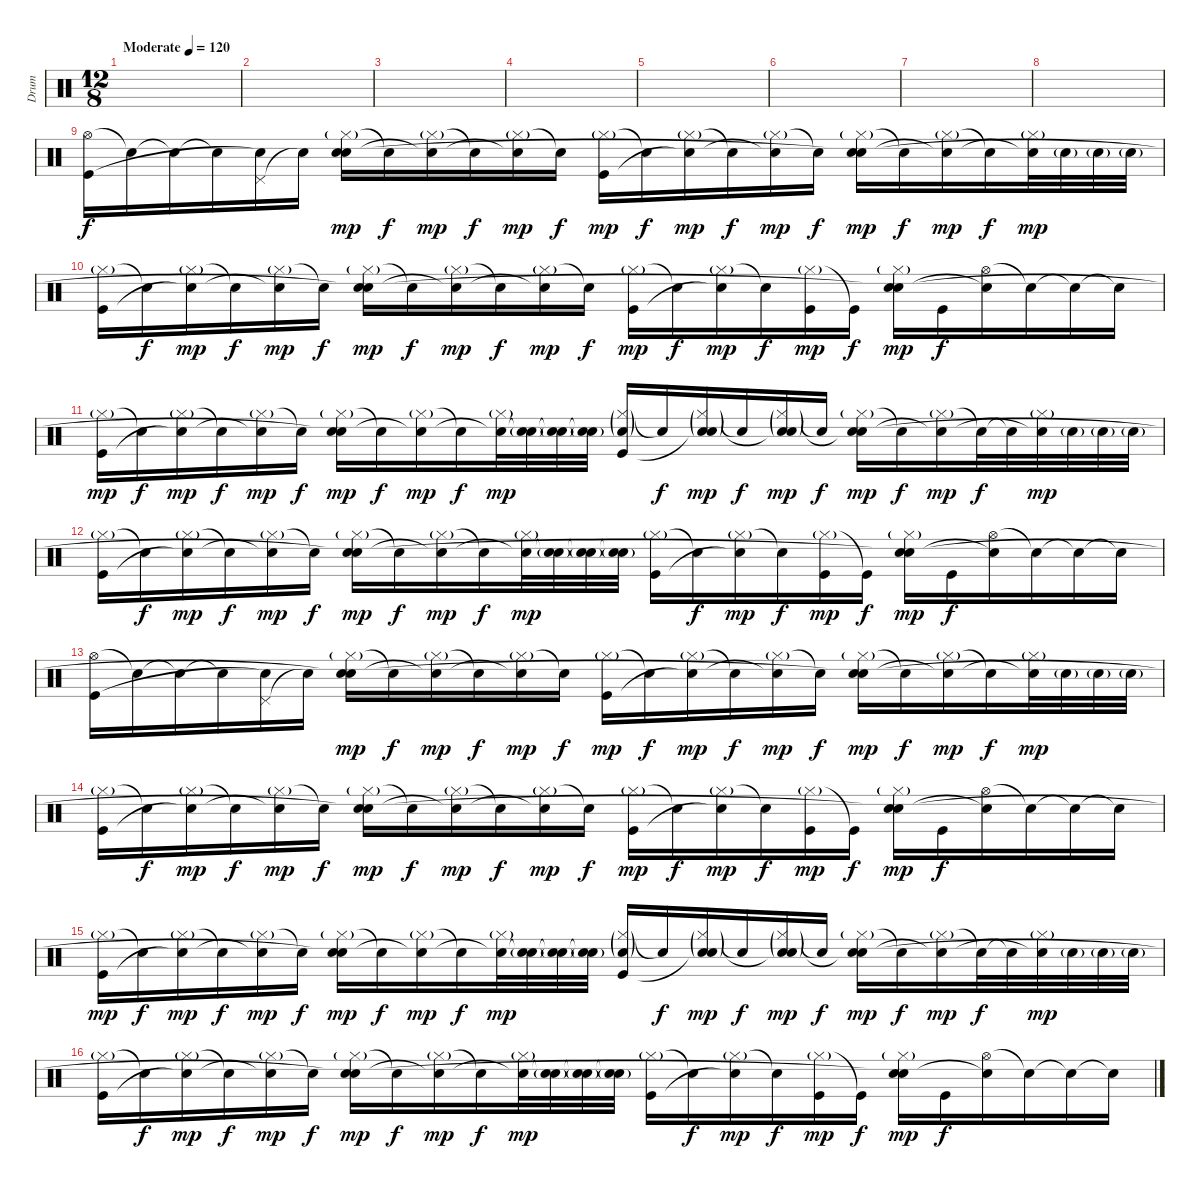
\track ("Drum" "Drum") {instrument percussion}
\staff {score}
\articulation defaults
\ts (12 8)
\tempo (120 "Moderate")
\clef neutral
\ks c
|
|
|
|
|
|
|
|
("Hi-Hat (open)" "Kick (hit)").16 "Snare (hit)"{t}.16 "Snare (hit)"{t}.16 "Snare (hit)"{t}.16 ("Pedal Hi-Hat (hit)" "Snare (hit)"{t}).16 "Snare (hit)"{t}.16 ("Hi-Hat (closed)"{g} "Electric Snare (hit)" "Snare (hit)").16{dy mp} "Snare (hit)"{t}.16{dy f} ("Hi-Hat (closed)"{g} "Snare (hit)"{t}).16{dy mp} "Snare (hit)"{t}.16{dy f} ("Hi-Hat (closed)"{g} "Snare (hit)"{t}).16{dy mp} "Snare (hit)"{t}.16{dy f} ("Hi-Hat (closed)"{g} "Kick (hit)").16{dy mp} "Snare (hit)"{t}.16{dy f} ("Hi-Hat (closed)"{g} "Snare (hit)"{t}).16{dy mp} "Snare (hit)"{t}.16{dy f} ("Hi-Hat (closed)"{g} "Snare (hit)"{t}).16{dy mp} "Snare (hit)"{t}.16{dy f} ("Hi-Hat (closed)"{g} "Electric Snare (hit)" "Snare (hit)"{t}).16{dy mp} "Snare (hit)"{t}.16{dy f} ("Hi-Hat (closed)"{g} "Snare (hit)"{t}).16{dy mp} "Snare (hit)"{t}.16{dy f} ("Hi-Hat (closed)"{g} "Snare (hit)"{t}).32{dy mp} "Electric Snare (hit)"{g}.32 "Electric Snare (hit)"{g}.32 "Electric Snare (hit)"{g}.32 |
("Hi-Hat (closed)"{g} "Kick (hit)").16 "Snare (hit)"{t}.16{dy f} ("Hi-Hat (closed)"{g} "Snare (hit)"{t}).16{dy mp} "Snare (hit)"{t}.16{dy f} ("Hi-Hat (closed)"{g} "Snare (hit)"{t}).16{dy mp} "Snare (hit)"{t}.16{dy f} ("Hi-Hat (closed)"{g} "Electric Snare (hit)" "Snare (hit)"{t}).16{dy mp} "Snare (hit)"{t}.16{dy f} ("Hi-Hat (closed)"{g} "Snare (hit)"{t}).16{dy mp} "Snare (hit)"{t}.16{dy f} ("Hi-Hat (closed)"{g} "Snare (hit)"{t}).16{dy mp} "Snare (hit)"{t}.16{dy f} ("Hi-Hat (closed)"{g} "Kick (hit)").16{dy mp} "Snare (hit)"{t}.16{dy f} ("Hi-Hat (closed)"{g} "Snare (hit)"{t}).16{dy mp} "Snare (hit)"{t}.16{dy f} ("Hi-Hat (closed)"{g} "Kick (hit)").16{dy mp} "Kick (hit)"{t}.16{dy f} ("Hi-Hat (closed)"{g} "Electric Snare (hit)" "Snare (hit)"{t}).16{dy mp} "Kick (hit)".16{dy f} ("Hi-Hat (open)" "Snare (hit)"{t}).16 "Snare (hit)"{t}.16 "Snare (hit)"{t}.16 "Snare (hit)"{t}.16 |
("Hi-Hat (closed)"{g} "Kick (hit)").16{dy mp} "Snare (hit)"{t}.16{dy f} ("Hi-Hat (closed)"{g} "Snare (hit)"{t}).16{dy mp} "Snare (hit)"{t}.16{dy f} ("Hi-Hat (closed)"{g} "Snare (hit)"{t}).16{dy mp} "Snare (hit)"{t}.16{dy f} ("Hi-Hat (closed)"{g} "Electric Snare (hit)" "Snare (hit)"{t}).16{dy mp} "Snare (hit)"{t}.16{dy f} ("Hi-Hat (closed)"{g} "Snare (hit)"{t}).16{dy mp} "Snare (hit)"{t}.16{dy f} ("Hi-Hat (closed)"{g} "Snare (hit)"{t}).32{dy mp} ("Electric Snare (hit)"{g} "Snare (hit)"{t}).32 ("Electric Snare (hit)"{g} "Snare (hit)"{t}).32 ("Electric Snare (hit)"{g} "Snare (hit)"{t}).32 ("Hi-Hat (closed)"{g} "Electric Snare (hit)"{g} "Kick (hit)").16 "Snare (hit)"{t}.16{dy f} ("Hi-Hat (closed)"{g} "Electric Snare (hit)"{g} "Snare (hit)"{t}).16{dy mp} "Snare (hit)"{t}.16{dy f} ("Hi-Hat (closed)"{g} "Electric Snare (hit)"{g} "Snare (hit)"{t}).16{dy mp} "Snare (hit)"{t}.16{dy f} ("Hi-Hat (closed)"{g} "Electric Snare (hit)" "Snare (hit)"{t}).16{dy mp} "Snare (hit)"{t}.16{dy f} ("Hi-Hat (closed)"{g} "Snare (hit)"{t}).16{dy mp} "Snare (hit)"{t}.32{dy f} "Snare (hit)"{t}.32 ("Hi-Hat (closed)"{g} "Snare (hit)"{t}).32{dy mp} "Electric Snare (hit)"{g}.32 "Electric Snare (hit)"{g}.32 "Electric Snare (hit)"{g}.32 |
("Hi-Hat (closed)"{g} "Kick (hit)").16 "Snare (hit)"{t}.16{dy f} ("Hi-Hat (closed)"{g} "Snare (hit)"{t}).16{dy mp} "Snare (hit)"{t}.16{dy f} ("Hi-Hat (closed)"{g} "Snare (hit)"{t}).16{dy mp} "Snare (hit)"{t}.16{dy f} ("Hi-Hat (closed)"{g} "Electric Snare (hit)" "Snare (hit)"{t}).16{dy mp} "Snare (hit)"{t}.16{dy f} ("Hi-Hat (closed)"{g} "Snare (hit)"{t}).16{dy mp} "Snare (hit)"{t}.16{dy f} ("Hi-Hat (closed)"{g} "Snare (hit)"{t}).32{dy mp} ("Electric Snare (hit)"{g} "Snare (hit)"{t}).32 ("Electric Snare (hit)"{g} "Snare (hit)"{t}).32 ("Electric Snare (hit)"{g} "Snare (hit)"{t}).32 ("Hi-Hat (closed)"{g} "Kick (hit)").16 "Snare (hit)"{t}.16{dy f} ("Hi-Hat (closed)"{g} "Snare (hit)"{t}).16{dy mp} "Snare (hit)"{t}.16{dy f} ("Hi-Hat (closed)"{g} "Kick (hit)").16{dy mp} "Kick (hit)"{t}.16{dy f} ("Hi-Hat (closed)"{g} "Electric Snare (hit)" "Snare (hit)"{t}).16{dy mp} "Kick (hit)".16{dy f} ("Hi-Hat (open)" "Snare (hit)"{t}).16 "Snare (hit)"{t}.16 "Snare (hit)"{t}.16 "Snare (hit)"{t}.16 |
("Hi-Hat (open)" "Kick (hit)").16 "Snare (hit)"{t}.16 "Snare (hit)"{t}.16 "Snare (hit)"{t}.16 ("Pedal Hi-Hat (hit)" "Snare (hit)"{t}).16 "Snare (hit)"{t}.16 ("Hi-Hat (closed)"{g} "Electric Snare (hit)" "Snare (hit)"{t}).16{dy mp} "Snare (hit)"{t}.16{dy f} ("Hi-Hat (closed)"{g} "Snare (hit)"{t}).16{dy mp} "Snare (hit)"{t}.16{dy f} ("Hi-Hat (closed)"{g} "Snare (hit)"{t}).16{dy mp} "Snare (hit)"{t}.16{dy f} ("Hi-Hat (closed)"{g} "Kick (hit)").16{dy mp} "Snare (hit)"{t}.16{dy f} ("Hi-Hat (closed)"{g} "Snare (hit)"{t}).16{dy mp} "Snare (hit)"{t}.16{dy f} ("Hi-Hat (closed)"{g} "Snare (hit)"{t}).16{dy mp} "Snare (hit)"{t}.16{dy f} ("Hi-Hat (closed)"{g} "Electric Snare (hit)" "Snare (hit)"{t}).16{dy mp} "Snare (hit)"{t}.16{dy f} ("Hi-Hat (closed)"{g} "Snare (hit)"{t}).16{dy mp} "Snare (hit)"{t}.16{dy f} ("Hi-Hat (closed)"{g} "Snare (hit)"{t}).32{dy mp} "Electric Snare (hit)"{g}.32 "Electric Snare (hit)"{g}.32 "Electric Snare (hit)"{g}.32 |
("Hi-Hat (closed)"{g} "Kick (hit)").16 "Snare (hit)"{t}.16{dy f} ("Hi-Hat (closed)"{g} "Snare (hit)"{t}).16{dy mp} "Snare (hit)"{t}.16{dy f} ("Hi-Hat (closed)"{g} "Snare (hit)"{t}).16{dy mp} "Snare (hit)"{t}.16{dy f} ("Hi-Hat (closed)"{g} "Electric Snare (hit)" "Snare (hit)"{t}).16{dy mp} "Snare (hit)"{t}.16{dy f} ("Hi-Hat (closed)"{g} "Snare (hit)"{t}).16{dy mp} "Snare (hit)"{t}.16{dy f} ("Hi-Hat (closed)"{g} "Snare (hit)"{t}).16{dy mp} "Snare (hit)"{t}.16{dy f} ("Hi-Hat (closed)"{g} "Kick (hit)").16{dy mp} "Snare (hit)"{t}.16{dy f} ("Hi-Hat (closed)"{g} "Snare (hit)"{t}).16{dy mp} "Snare (hit)"{t}.16{dy f} ("Hi-Hat (closed)"{g} "Kick (hit)").16{dy mp} "Kick (hit)"{t}.16{dy f} ("Hi-Hat (closed)"{g} "Electric Snare (hit)" "Snare (hit)"{t}).16{dy mp} "Kick (hit)".16{dy f} ("Hi-Hat (open)" "Snare (hit)"{t}).16 "Snare (hit)"{t}.16 "Snare (hit)"{t}.16 "Snare (hit)"{t}.16 |
("Hi-Hat (closed)"{g} "Kick (hit)").16{dy mp} "Snare (hit)"{t}.16{dy f} ("Hi-Hat (closed)"{g} "Snare (hit)"{t}).16{dy mp} "Snare (hit)"{t}.16{dy f} ("Hi-Hat (closed)"{g} "Snare (hit)"{t}).16{dy mp} "Snare (hit)"{t}.16{dy f} ("Hi-Hat (closed)"{g} "Electric Snare (hit)" "Snare (hit)"{t}).16{dy mp} "Snare (hit)"{t}.16{dy f} ("Hi-Hat (closed)"{g} "Snare (hit)"{t}).16{dy mp} "Snare (hit)"{t}.16{dy f} ("Hi-Hat (closed)"{g} "Snare (hit)"{t}).32{dy mp} ("Electric Snare (hit)"{g} "Snare (hit)"{t}).32 ("Electric Snare (hit)"{g} "Snare (hit)"{t}).32 ("Electric Snare (hit)"{g} "Snare (hit)"{t}).32 ("Hi-Hat (closed)"{g} "Electric Snare (hit)"{g} "Kick (hit)").16 "Snare (hit)"{t}.16{dy f} ("Hi-Hat (closed)"{g} "Electric Snare (hit)"{g} "Snare (hit)"{t}).16{dy mp} "Snare (hit)"{t}.16{dy f} ("Hi-Hat (closed)"{g} "Electric Snare (hit)"{g} "Snare (hit)"{t}).16{dy mp} "Snare (hit)"{t}.16{dy f} ("Hi-Hat (closed)"{g} "Electric Snare (hit)" "Snare (hit)"{t}).16{dy mp} "Snare (hit)"{t}.16{dy f} ("Hi-Hat (closed)"{g} "Snare (hit)"{t}).16{dy mp} "Snare (hit)"{t}.32{dy f} "Snare (hit)"{t}.32 ("Hi-Hat (closed)"{g} "Snare (hit)"{t}).32{dy mp} "Electric Snare (hit)"{g}.32 "Electric Snare (hit)"{g}.32 "Electric Snare (hit)"{g}.32 |
("Hi-Hat (closed)"{g} "Kick (hit)").16 "Snare (hit)"{t}.16{dy f} ("Hi-Hat (closed)"{g} "Snare (hit)"{t}).16{dy mp} "Snare (hit)"{t}.16{dy f} ("Hi-Hat (closed)"{g} "Snare (hit)"{t}).16{dy mp} "Snare (hit)"{t}.16{dy f} ("Hi-Hat (closed)"{g} "Electric Snare (hit)" "Snare (hit)"{t}).16{dy mp} "Snare (hit)"{t}.16{dy f} ("Hi-Hat (closed)"{g} "Snare (hit)"{t}).16{dy mp} "Snare (hit)"{t}.16{dy f} ("Hi-Hat (closed)"{g} "Snare (hit)"{t}).32{dy mp} ("Electric Snare (hit)"{g} "Snare (hit)"{t}).32 ("Electric Snare (hit)"{g} "Snare (hit)"{t}).32 ("Electric Snare (hit)"{g} "Snare (hit)"{t}).32 ("Hi-Hat (closed)"{g} "Kick (hit)").16 "Snare (hit)"{t}.16{dy f} ("Hi-Hat (closed)"{g} "Snare (hit)"{t}).16{dy mp} "Snare (hit)"{t}.16{dy f} ("Hi-Hat (closed)"{g} "Kick (hit)").16{dy mp} "Kick (hit)"{t}.16{dy f} ("Hi-Hat (closed)"{g} "Electric Snare (hit)" "Snare (hit)"{t}).16{dy mp} "Kick (hit)".16{dy f} ("Hi-Hat (open)" "Snare (hit)"{t}).16 "Snare (hit)"{t}.16 "Snare (hit)"{t}.16 "Snare (hit)"{t}.16
